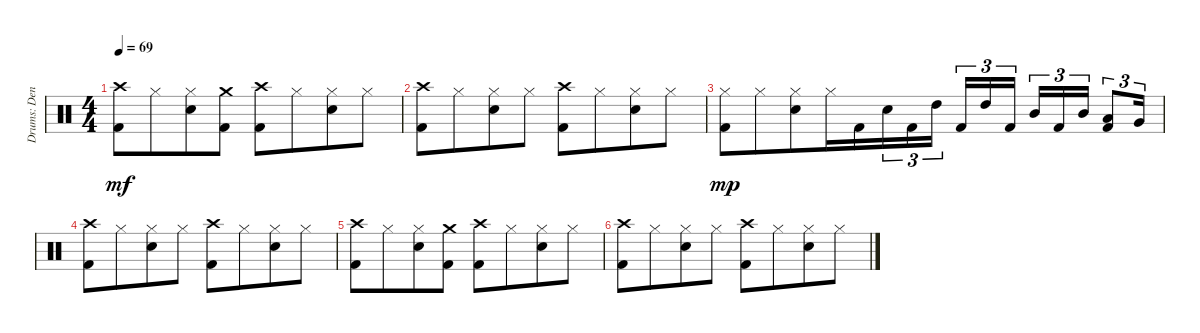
\track ("Drums: Denny" "Drums: Den") {instrument percussion}
\staff {score}
\articulation defaults
\ts (4 4)
\tempo 69
\clef neutral
\ks c
("Crash high (hit)" "Kick (hit) 2").8{dy mf} "Hi-Hat (closed)".8{beam merge} ("Hi-Hat (closed)" "Snare (hit) 2").8 ("Crash medium (hit)" "Kick (hit) 2").8 ("Crash high (hit)" "Kick (hit) 2").8 "Hi-Hat (closed)".8{beam merge} ("Hi-Hat (closed)" "Snare (hit) 2").8 "Hi-Hat (closed)".8 |
("Crash high (hit)" "Kick (hit) 2").8 "Hi-Hat (closed)".8{beam merge} ("Hi-Hat (closed)" "Snare (hit) 2").8 "Hi-Hat (closed)".8 ("Crash high (hit)" "Kick (hit) 2").8 "Hi-Hat (closed)".8{beam merge} ("Hi-Hat (closed)" "Snare (hit) 2").8 "Hi-Hat (closed)".8 |
("Hi-Hat (closed)" "Kick (hit) 2").8{dy mp} "Hi-Hat (closed)".8{beam merge} ("Hi-Hat (closed)" "Snare (hit) 2").8 "Hi-Hat (closed)".16 "Kick (hit) 2".16{beam merge} "Snare (hit) 2".16{tu (3 2)} "Kick (hit) 2".16{tu (3 2)} "High Tom (hit)".16{tu (3 2) beam splitsecondary} "Kick (hit) 2".16{tu (3 2)} "High Tom (hit)".16{tu (3 2)} "Kick (hit) 2".16{tu (3 2)} "Mid Tom (hit)".16{tu (3 2)} "Kick (hit) 2".16{tu (3 2)} "Mid Tom (hit)".16{tu (3 2)} ("Low Tom (hit)" "Kick (hit) 2").8{tu (3 2)} "Very Low Tom (hit)".16{tu (3 2)} |
("Crash high (hit)" "Kick (hit) 2").8 "Hi-Hat (closed)".8{beam merge} ("Hi-Hat (closed)" "Snare (hit) 2").8 "Hi-Hat (closed)".8 ("Crash high (hit)" "Kick (hit) 2").8 "Hi-Hat (closed)".8{beam merge} ("Hi-Hat (closed)" "Snare (hit) 2").8 "Hi-Hat (closed)".8 |
("Crash high (hit)" "Kick (hit) 2").8 "Hi-Hat (closed)".8{beam merge} ("Hi-Hat (closed)" "Snare (hit) 2").8 ("Crash medium (hit)" "Kick (hit) 2").8 ("Crash high (hit)" "Kick (hit) 2").8 "Hi-Hat (closed)".8{beam merge} ("Hi-Hat (closed)" "Snare (hit) 2").8 "Hi-Hat (closed)".8 |
("Crash high (hit)" "Kick (hit) 2").8 "Hi-Hat (closed)".8{beam merge} ("Hi-Hat (closed)" "Snare (hit) 2").8 "Hi-Hat (closed)".8 ("Crash high (hit)" "Kick (hit) 2").8 "Hi-Hat (closed)".8{beam merge} ("Hi-Hat (closed)" "Snare (hit) 2").8 "Hi-Hat (closed)".8
